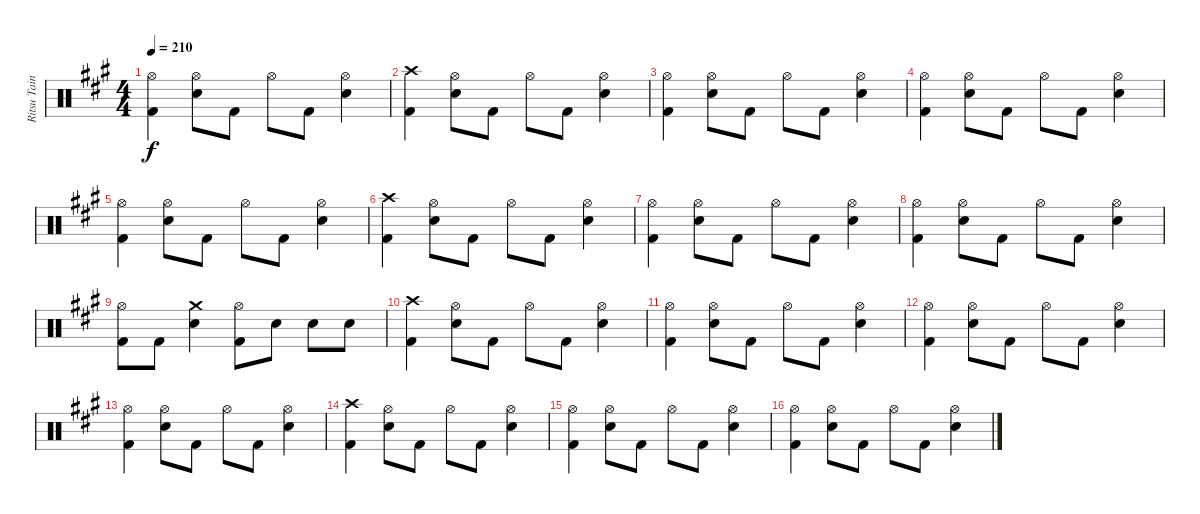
\track ("Ritsu Tainaka" "Ritsu Tain") {instrument percussion}
\staff {score}
\articulation defaults
\ts (4 4)
\tempo 210
\clef neutral
\ks a
("Hi-Hat (open)" "Kick (hit) 2").4{dy f} ("Hi-Hat (open)" "Electric Snare (hit)").8 "Kick (hit) 2".8 "Hi-Hat (open)".8 "Kick (hit) 2".8 ("Hi-Hat (open)" "Electric Snare (hit)").4 |
("Crash high (hit)" "Kick (hit) 2").4 ("Hi-Hat (open)" "Electric Snare (hit)").8 "Kick (hit) 2".8 "Hi-Hat (open)".8 "Kick (hit) 2".8 ("Hi-Hat (open)" "Electric Snare (hit)").4 |
("Hi-Hat (open)" "Kick (hit) 2").4 ("Hi-Hat (open)" "Electric Snare (hit)").8 "Kick (hit) 2".8 "Hi-Hat (open)".8 "Kick (hit) 2".8 ("Hi-Hat (open)" "Electric Snare (hit)").4 |
("Hi-Hat (open)" "Kick (hit) 2").4 ("Hi-Hat (open)" "Electric Snare (hit)").8 "Kick (hit) 2".8 "Hi-Hat (open)".8 "Kick (hit) 2".8 ("Hi-Hat (open)" "Electric Snare (hit)").4 |
("Hi-Hat (open)" "Kick (hit) 2").4 ("Hi-Hat (open)" "Electric Snare (hit)").8 "Kick (hit) 2".8 "Hi-Hat (open)".8 "Kick (hit) 2".8 ("Hi-Hat (open)" "Electric Snare (hit)").4 |
("Crash high (hit)" "Kick (hit) 2").4 ("Hi-Hat (open)" "Electric Snare (hit)").8 "Kick (hit) 2".8 "Hi-Hat (open)".8 "Kick (hit) 2".8 ("Hi-Hat (open)" "Electric Snare (hit)").4 |
("Hi-Hat (open)" "Kick (hit) 2").4 ("Hi-Hat (open)" "Electric Snare (hit)").8 "Kick (hit) 2".8 "Hi-Hat (open)".8 "Kick (hit) 2".8 ("Hi-Hat (open)" "Electric Snare (hit)").4 |
("Hi-Hat (open)" "Kick (hit) 2").4 ("Hi-Hat (open)" "Electric Snare (hit)").8 "Kick (hit) 2".8 "Hi-Hat (open)".8 "Kick (hit) 2".8 ("Hi-Hat (open)" "Electric Snare (hit)").4 |
("Hi-Hat (open)" "Kick (hit) 2").8 "Kick (hit) 2".8 ("Crash medium (hit)" "Electric Snare (hit)").4 ("Hi-Hat (open)" "Kick (hit) 2").8 "Electric Snare (hit)".8 "Electric Snare (hit)".8 "Electric Snare (hit)".8 |
("Crash high (hit)" "Kick (hit) 2").4 ("Hi-Hat (open)" "Electric Snare (hit)").8 "Kick (hit) 2".8 "Hi-Hat (open)".8 "Kick (hit) 2".8 ("Hi-Hat (open)" "Electric Snare (hit)").4 |
("Hi-Hat (open)" "Kick (hit) 2").4 ("Hi-Hat (open)" "Electric Snare (hit)").8 "Kick (hit) 2".8 "Hi-Hat (open)".8 "Kick (hit) 2".8 ("Hi-Hat (open)" "Electric Snare (hit)").4 |
("Hi-Hat (open)" "Kick (hit) 2").4 ("Hi-Hat (open)" "Electric Snare (hit)").8 "Kick (hit) 2".8 "Hi-Hat (open)".8 "Kick (hit) 2".8 ("Hi-Hat (open)" "Electric Snare (hit)").4 |
("Hi-Hat (open)" "Kick (hit) 2").4 ("Hi-Hat (open)" "Electric Snare (hit)").8 "Kick (hit) 2".8 "Hi-Hat (open)".8 "Kick (hit) 2".8 ("Hi-Hat (open)" "Electric Snare (hit)").4 |
("Crash high (hit)" "Kick (hit) 2").4 ("Hi-Hat (open)" "Electric Snare (hit)").8 "Kick (hit) 2".8 "Hi-Hat (open)".8 "Kick (hit) 2".8 ("Hi-Hat (open)" "Electric Snare (hit)").4 |
("Hi-Hat (open)" "Kick (hit) 2").4 ("Hi-Hat (open)" "Electric Snare (hit)").8 "Kick (hit) 2".8 "Hi-Hat (open)".8 "Kick (hit) 2".8 ("Hi-Hat (open)" "Electric Snare (hit)").4 |
("Hi-Hat (open)" "Kick (hit) 2").4 ("Hi-Hat (open)" "Electric Snare (hit)").8 "Kick (hit) 2".8 "Hi-Hat (open)".8 "Kick (hit) 2".8 ("Hi-Hat (open)" "Electric Snare (hit)").4
